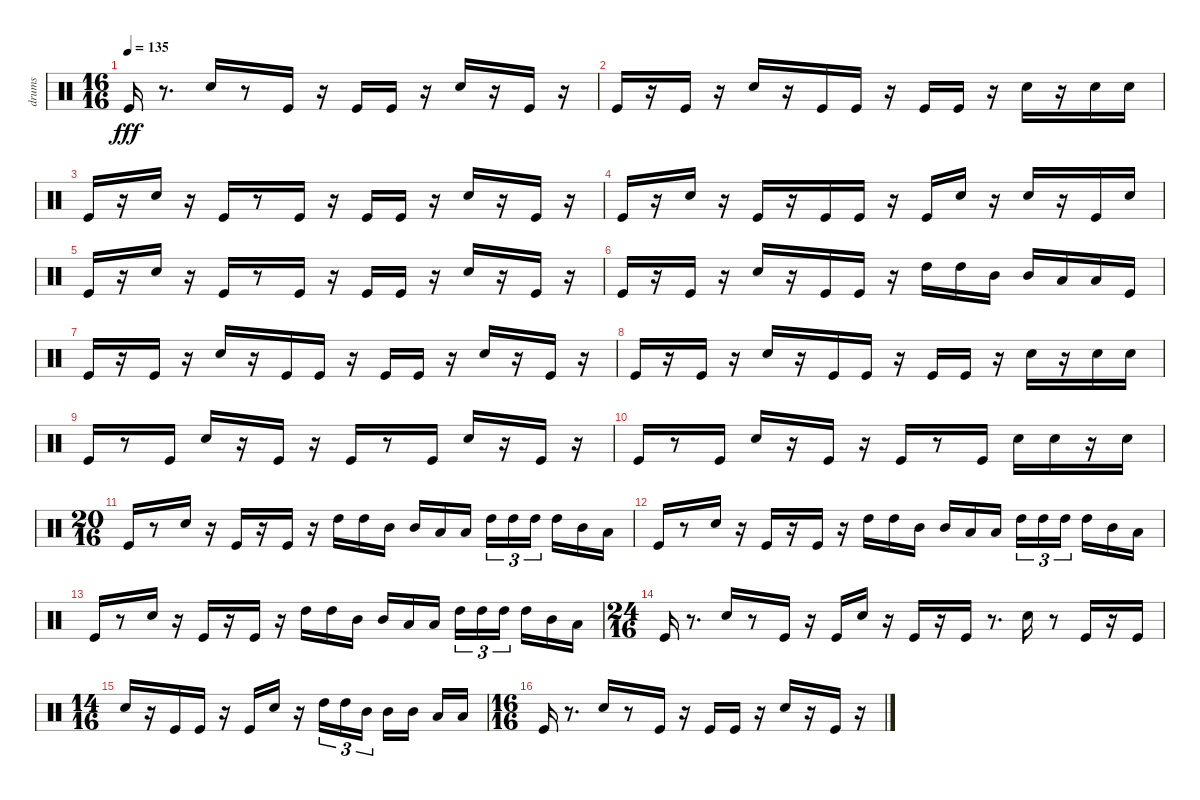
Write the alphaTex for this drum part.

\track ("drums" "drums") {instrument percussion}
\staff {score}
\articulation defaults
\ts (16 16)
\tempo 135
\clef neutral
\ks c "Kick (hit)".16{dy fff}
r.8{d} "Snare (hit) 2".16 r.8 "Kick (hit)".16 r.16 "Kick (hit)".16 "Kick (hit)".16 r.16 "Snare (hit) 2".16 r.16 "Kick (hit)".16 r.16 |
"Kick (hit)".16 r.16 "Kick (hit)".16 r.16 "Snare (hit) 2".16 r.16 "Kick (hit)".16 "Kick (hit)".16 r.16 "Kick (hit)".16 "Kick (hit)".16 r.16 "Snare (hit) 2".16 r.16 "Snare (hit) 2".16 "Snare (hit) 2".16 |
"Kick (hit)".16 r.16 "Snare (hit) 2".16 r.16 "Kick (hit)".16 r.8 "Kick (hit)".16 r.16 "Kick (hit)".16 "Kick (hit)".16 r.16 "Snare (hit) 2".16 r.16 "Kick (hit)".16 r.16 |
"Kick (hit)".16 r.16 "Snare (hit) 2".16 r.16 "Kick (hit)".16 r.16 "Kick (hit)".16 "Kick (hit)".16 r.16 "Kick (hit)".16 "Snare (hit) 2".16 r.16 "Snare (hit) 2".16 r.16 "Kick (hit)".16 "Snare (hit) 2".16 |
"Kick (hit)".16 r.16 "Snare (hit) 2".16 r.16 "Kick (hit)".16 r.8 "Kick (hit)".16 r.16 "Kick (hit)".16 "Kick (hit)".16 r.16 "Snare (hit) 2".16 r.16 "Kick (hit)".16 r.16 |
"Kick (hit)".16 r.16 "Kick (hit)".16 r.16 "Snare (hit) 2".16 r.16 "Kick (hit)".16 "Kick (hit)".16 r.16 "High Tom (hit)".16 "High Tom (hit)".16 "Mid Tom (hit)".16 "Mid Tom (hit)".16 "Low Tom (hit)".16 "Low Tom (hit)".16 "Kick (hit)".16 |
"Kick (hit)".16 r.16 "Kick (hit)".16 r.16 "Snare (hit) 2".16 r.16 "Kick (hit)".16 "Kick (hit)".16 r.16 "Kick (hit)".16 "Kick (hit)".16 r.16 "Snare (hit) 2".16 r.16 "Kick (hit)".16 r.16 |
"Kick (hit)".16 r.16 "Kick (hit)".16 r.16 "Snare (hit) 2".16 r.16 "Kick (hit)".16 "Kick (hit)".16 r.16 "Kick (hit)".16 "Kick (hit)".16 r.16 "Snare (hit) 2".16 r.16 "Snare (hit) 2".16 "Snare (hit) 2".16 |
"Kick (hit)".16 r.8 "Kick (hit)".16 "Snare (hit) 2".16 r.16 "Kick (hit)".16 r.16 "Kick (hit)".16 r.8 "Kick (hit)".16 "Snare (hit) 2".16 r.16 "Kick (hit)".16 r.16 |
"Kick (hit)".16 r.8 "Kick (hit)".16 "Snare (hit) 2".16 r.16 "Kick (hit)".16 r.16 "Kick (hit)".16 r.8 "Kick (hit)".16 "Snare (hit) 2".16 "Snare (hit) 2".16 r.16 "Snare (hit) 2".16 |
\ts (20 16)
"Kick (hit)".16 r.8 "Snare (hit) 2".16 r.16 "Kick (hit)".16 r.16 "Kick (hit)".16 r.16 "High Tom (hit)".16 "High Tom (hit)".16 "Mid Tom (hit)".16 "Mid Tom (hit)".16 "Low Tom (hit)".16 "Low Tom (hit)".16 "High Tom (hit)".16{tu (3 2)} "High Tom (hit)".16{tu (3 2)} "High Tom (hit)".16{tu (3 2)} "High Tom (hit)".16 "Mid Tom (hit)".16 "Low Tom (hit)".16 |
"Kick (hit)".16 r.8 "Snare (hit) 2".16 r.16 "Kick (hit)".16 r.16 "Kick (hit)".16 r.16 "High Tom (hit)".16 "High Tom (hit)".16 "Mid Tom (hit)".16 "Mid Tom (hit)".16 "Low Tom (hit)".16 "Low Tom (hit)".16 "High Tom (hit)".16{tu (3 2)} "High Tom (hit)".16{tu (3 2)} "High Tom (hit)".16{tu (3 2)} "High Tom (hit)".16 "Mid Tom (hit)".16 "Low Tom (hit)".16 |
"Kick (hit)".16 r.8 "Snare (hit) 2".16 r.16 "Kick (hit)".16 r.16 "Kick (hit)".16 r.16 "High Tom (hit)".16 "High Tom (hit)".16 "Mid Tom (hit)".16 "Mid Tom (hit)".16 "Low Tom (hit)".16 "Low Tom (hit)".16 "High Tom (hit)".16{tu (3 2)} "High Tom (hit)".16{tu (3 2)} "High Tom (hit)".16{tu (3 2)} "High Tom (hit)".16 "Mid Tom (hit)".16 "Low Tom (hit)".16 |
\ts (24 16)
"Kick (hit)".16 r.8{d} "Snare (hit) 2".16 r.8 "Kick (hit)".16 r.16 "Kick (hit)".16 "Snare (hit) 2".16 r.16 "Kick (hit)".16 r.16 "Kick (hit)".16 r.8{d} "Snare (hit) 2".16 r.8 "Kick (hit)".16 r.16 "Kick (hit)".16 |
\ts (14 16)
"Snare (hit) 2".16 r.16 "Kick (hit)".16 "Kick (hit)".16 r.16 "Kick (hit)".16 "Snare (hit) 2".16 r.16 "High Tom (hit)".16{tu (3 2)} "High Tom (hit)".16{tu (3 2)} "Mid Tom (hit)".16{tu (3 2)} "Mid Tom (hit)".16 "Mid Tom (hit)".16 "Low Tom (hit)".16 "Low Tom (hit)".16 |
\ts (16 16)
"Kick (hit)".16 r.8{d} "Snare (hit) 2".16 r.8 "Kick (hit)".16 r.16 "Kick (hit)".16 "Kick (hit)".16 r.16 "Snare (hit) 2".16 r.16 "Kick (hit)".16 r.16
